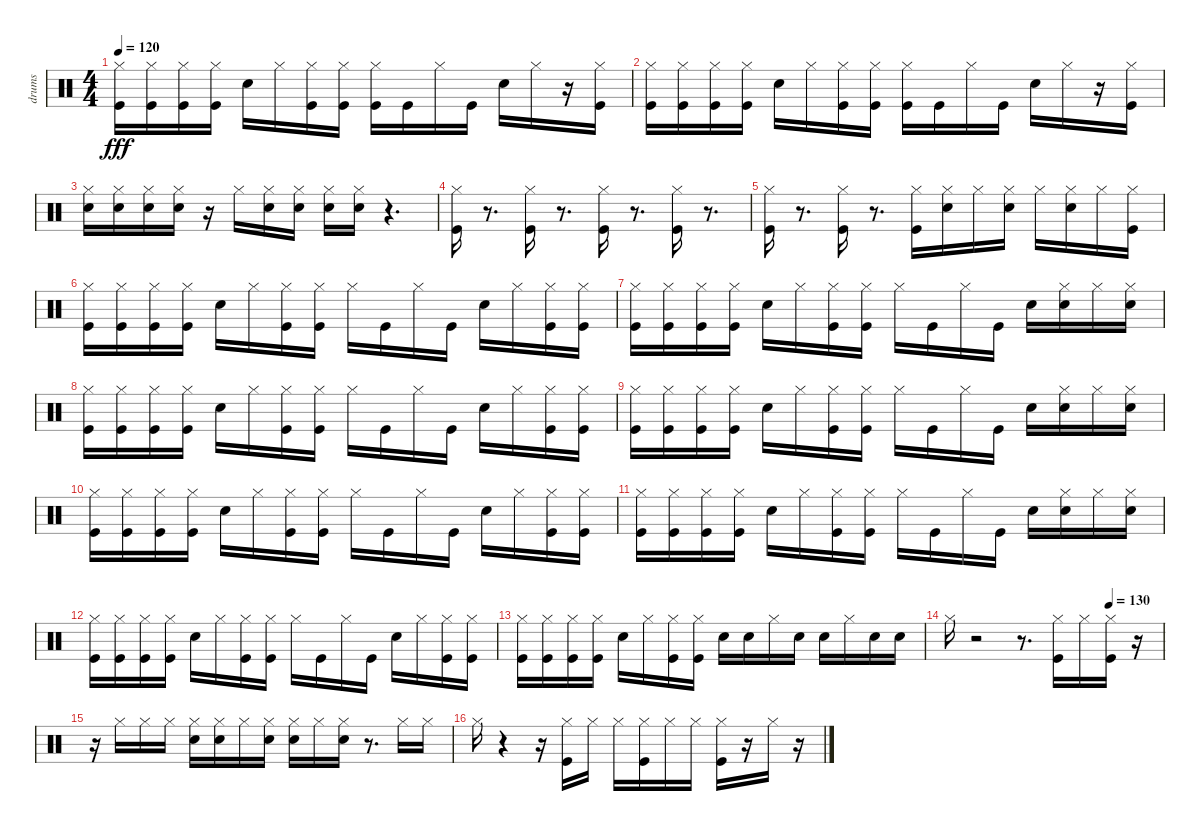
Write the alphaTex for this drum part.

\track ("drums" "drums") {instrument percussion}
\staff {score}
\articulation defaults
\ts (4 4)
\tempo 120
\clef neutral
\ks c
("Kick (hit)" "Hi-Hat (closed)").16{dy fff} ("Kick (hit)" "Hi-Hat (closed)").16 ("Kick (hit)" "Hi-Hat (closed)").16 ("Kick (hit)" "Hi-Hat (closed)").16 "Snare (hit) 2".16 "Hi-Hat (closed)".16 ("Kick (hit)" "Hi-Hat (closed)").16 ("Kick (hit)" "Hi-Hat (closed)").16 ("Kick (hit)" "Hi-Hat (closed)").16 "Kick (hit)".16 "Hi-Hat (closed)".16 "Kick (hit)".16 "Snare (hit) 2".16 "Hi-Hat (closed)".16 r.16 ("Kick (hit)" "Hi-Hat (closed)").16 |
("Kick (hit)" "Hi-Hat (closed)").16 ("Kick (hit)" "Hi-Hat (closed)").16 ("Kick (hit)" "Hi-Hat (closed)").16 ("Kick (hit)" "Hi-Hat (closed)").16 "Snare (hit) 2".16 "Hi-Hat (closed)".16 ("Kick (hit)" "Hi-Hat (closed)").16 ("Kick (hit)" "Hi-Hat (closed)").16 ("Kick (hit)" "Hi-Hat (closed)").16 "Kick (hit)".16 "Hi-Hat (closed)".16 "Kick (hit)".16 "Snare (hit) 2".16 "Hi-Hat (closed)".16 r.16 ("Kick (hit)" "Hi-Hat (closed)").16 |
("Snare (hit) 2" "Hi-Hat (closed)").16 ("Snare (hit) 2" "Hi-Hat (closed)").16 ("Snare (hit) 2" "Hi-Hat (closed)").16 ("Snare (hit) 2" "Hi-Hat (closed)").16 r.16 "Hi-Hat (closed)".16 ("Snare (hit) 2" "Hi-Hat (closed)").16 ("Snare (hit) 2" "Hi-Hat (closed)").16 ("Snare (hit) 2" "Hi-Hat (closed)").16 ("Snare (hit) 2" "Hi-Hat (closed)").16 r.4{d} |
("Kick (hit)" "Hi-Hat (closed)").16 r.8{d} ("Kick (hit)" "Hi-Hat (closed)").16 r.8{d} ("Kick (hit)" "Hi-Hat (closed)").16 r.8{d} ("Kick (hit)" "Hi-Hat (closed)").16 r.8{d} |
("Kick (hit)" "Hi-Hat (closed)").16 r.8{d} ("Kick (hit)" "Hi-Hat (closed)").16 r.8{d} ("Kick (hit)" "Hi-Hat (closed)").16 ("Snare (hit) 2" "Hi-Hat (closed)").16 "Hi-Hat (closed)".16 ("Snare (hit) 2" "Hi-Hat (closed)").16 "Hi-Hat (closed)".16 ("Snare (hit) 2" "Hi-Hat (closed)").16 "Hi-Hat (closed)".16 ("Kick (hit)" "Hi-Hat (closed)").16 |
("Kick (hit)" "Hi-Hat (closed)").16 ("Kick (hit)" "Hi-Hat (closed)").16 ("Kick (hit)" "Hi-Hat (closed)").16 ("Kick (hit)" "Hi-Hat (closed)").16 "Snare (hit) 2".16 "Hi-Hat (closed)".16 ("Kick (hit)" "Hi-Hat (closed)").16 ("Kick (hit)" "Hi-Hat (closed)").16 "Hi-Hat (closed)".16 "Kick (hit)".16 "Hi-Hat (closed)".16 "Kick (hit)".16 "Snare (hit) 2".16 "Hi-Hat (closed)".16 ("Kick (hit)" "Hi-Hat (closed)").16 ("Kick (hit)" "Hi-Hat (closed)").16 |
("Kick (hit)" "Hi-Hat (closed)").16 ("Kick (hit)" "Hi-Hat (closed)").16 ("Kick (hit)" "Hi-Hat (closed)").16 ("Kick (hit)" "Hi-Hat (closed)").16 "Snare (hit) 2".16 "Hi-Hat (closed)".16 ("Kick (hit)" "Hi-Hat (closed)").16 ("Kick (hit)" "Hi-Hat (closed)").16 "Hi-Hat (closed)".16 "Kick (hit)".16 "Hi-Hat (closed)".16 "Kick (hit)".16 "Snare (hit) 2".16 ("Snare (hit) 2" "Hi-Hat (closed)").16 "Hi-Hat (closed)".16 ("Snare (hit) 2" "Hi-Hat (closed)").16 |
("Kick (hit)" "Hi-Hat (closed)").16 ("Kick (hit)" "Hi-Hat (closed)").16 ("Kick (hit)" "Hi-Hat (closed)").16 ("Kick (hit)" "Hi-Hat (closed)").16 "Snare (hit) 2".16 "Hi-Hat (closed)".16 ("Kick (hit)" "Hi-Hat (closed)").16 ("Kick (hit)" "Hi-Hat (closed)").16 "Hi-Hat (closed)".16 "Kick (hit)".16 "Hi-Hat (closed)".16 "Kick (hit)".16 "Snare (hit) 2".16 "Hi-Hat (closed)".16 ("Kick (hit)" "Hi-Hat (closed)").16 ("Kick (hit)" "Hi-Hat (closed)").16 |
("Kick (hit)" "Hi-Hat (closed)").16 ("Kick (hit)" "Hi-Hat (closed)").16 ("Kick (hit)" "Hi-Hat (closed)").16 ("Kick (hit)" "Hi-Hat (closed)").16 "Snare (hit) 2".16 "Hi-Hat (closed)".16 ("Kick (hit)" "Hi-Hat (closed)").16 ("Kick (hit)" "Hi-Hat (closed)").16 "Hi-Hat (closed)".16 "Kick (hit)".16 "Hi-Hat (closed)".16 "Kick (hit)".16 "Snare (hit) 2".16 ("Snare (hit) 2" "Hi-Hat (closed)").16 "Hi-Hat (closed)".16 ("Snare (hit) 2" "Hi-Hat (closed)").16 |
("Kick (hit)" "Hi-Hat (closed)").16 ("Kick (hit)" "Hi-Hat (closed)").16 ("Kick (hit)" "Hi-Hat (closed)").16 ("Kick (hit)" "Hi-Hat (closed)").16 "Snare (hit) 2".16 "Hi-Hat (closed)".16 ("Kick (hit)" "Hi-Hat (closed)").16 ("Kick (hit)" "Hi-Hat (closed)").16 "Hi-Hat (closed)".16 "Kick (hit)".16 "Hi-Hat (closed)".16 "Kick (hit)".16 "Snare (hit) 2".16 "Hi-Hat (closed)".16 ("Kick (hit)" "Hi-Hat (closed)").16 ("Kick (hit)" "Hi-Hat (closed)").16 |
("Kick (hit)" "Hi-Hat (closed)").16 ("Kick (hit)" "Hi-Hat (closed)").16 ("Kick (hit)" "Hi-Hat (closed)").16 ("Kick (hit)" "Hi-Hat (closed)").16 "Snare (hit) 2".16 "Hi-Hat (closed)".16 ("Kick (hit)" "Hi-Hat (closed)").16 ("Kick (hit)" "Hi-Hat (closed)").16 "Hi-Hat (closed)".16 "Kick (hit)".16 "Hi-Hat (closed)".16 "Kick (hit)".16 "Snare (hit) 2".16 ("Snare (hit) 2" "Hi-Hat (closed)").16 "Hi-Hat (closed)".16 ("Snare (hit) 2" "Hi-Hat (closed)").16 |
("Kick (hit)" "Hi-Hat (closed)").16 ("Kick (hit)" "Hi-Hat (closed)").16 ("Kick (hit)" "Hi-Hat (closed)").16 ("Kick (hit)" "Hi-Hat (closed)").16 "Snare (hit) 2".16 "Hi-Hat (closed)".16 ("Kick (hit)" "Hi-Hat (closed)").16 ("Kick (hit)" "Hi-Hat (closed)").16 "Hi-Hat (closed)".16 "Kick (hit)".16 "Hi-Hat (closed)".16 "Kick (hit)".16 "Snare (hit) 2".16 "Hi-Hat (closed)".16 ("Kick (hit)" "Hi-Hat (closed)").16 ("Kick (hit)" "Hi-Hat (closed)").16 |
("Kick (hit)" "Hi-Hat (closed)").16 ("Kick (hit)" "Hi-Hat (closed)").16 ("Kick (hit)" "Hi-Hat (closed)").16 ("Kick (hit)" "Hi-Hat (closed)").16 "Snare (hit) 2".16 "Hi-Hat (closed)".16 ("Kick (hit)" "Hi-Hat (closed)").16 ("Kick (hit)" "Hi-Hat (closed)").16 "Snare (hit) 2".16 "Snare (hit) 2".16 "Hi-Hat (closed)".16 "Snare (hit) 2".16 "Snare (hit) 2".16 "Hi-Hat (closed)".16 "Snare (hit) 2".16 "Snare (hit) 2".16 |
\tempo (130 0.75)
"Hi-Hat (closed)".16 r.2 r.8{d} ("Hi-Hat (closed)" "Kick (hit)").16 "Hi-Hat (closed)".16 ("Hi-Hat (closed)" "Kick (hit)").16 r.16 |
r.16 "Hi-Hat (closed)".16 "Hi-Hat (closed)".16 "Hi-Hat (closed)".16 ("Hi-Hat (closed)" "Snare (hit) 2").16 ("Hi-Hat (closed)" "Snare (hit) 2").16 "Hi-Hat (closed)".16 ("Hi-Hat (closed)" "Snare (hit) 2").16 ("Hi-Hat (closed)" "Snare (hit) 2").16 "Hi-Hat (closed)".16 ("Hi-Hat (closed)" "Snare (hit) 2").16 r.8{d} "Hi-Hat (closed)".16 "Hi-Hat (closed)".16 |
"Hi-Hat (closed)".16 r.4 r.16 ("Hi-Hat (closed)" "Kick (hit)").16 "Hi-Hat (closed)".16 "Hi-Hat (closed)".16 ("Hi-Hat (closed)" "Kick (hit)").16 "Hi-Hat (closed)".16 "Hi-Hat (closed)".16 ("Hi-Hat (closed)" "Kick (hit)").16 r.16 "Hi-Hat (closed)".16 r.16
